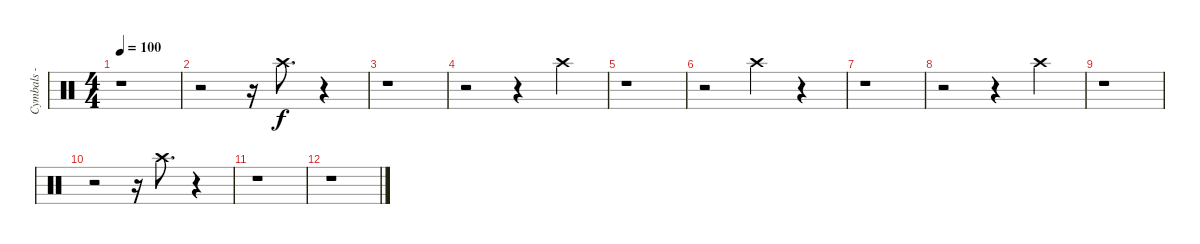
\track ("Cymbals - crash - right" "Cymbals - ") {instrument percussion}
\staff {score}
\articulation defaults
\ts (4 4)
\tempo 100
\clef neutral
\ks c
r.1{dy f} |
r.2 r.16 "Crash high (hit)".8{d} r.4 |
r.1 |
r.2 r.4 "Crash high (hit)".4 |
r.1 |
r.2 "Crash high (hit)".4 r.4 |
r.1 |
r.2 r.4 "Crash high (hit)".4 |
r.1 |
r.2 r.16 "Crash high (hit)".8{d} r.4 |
r.1 |
r.1
